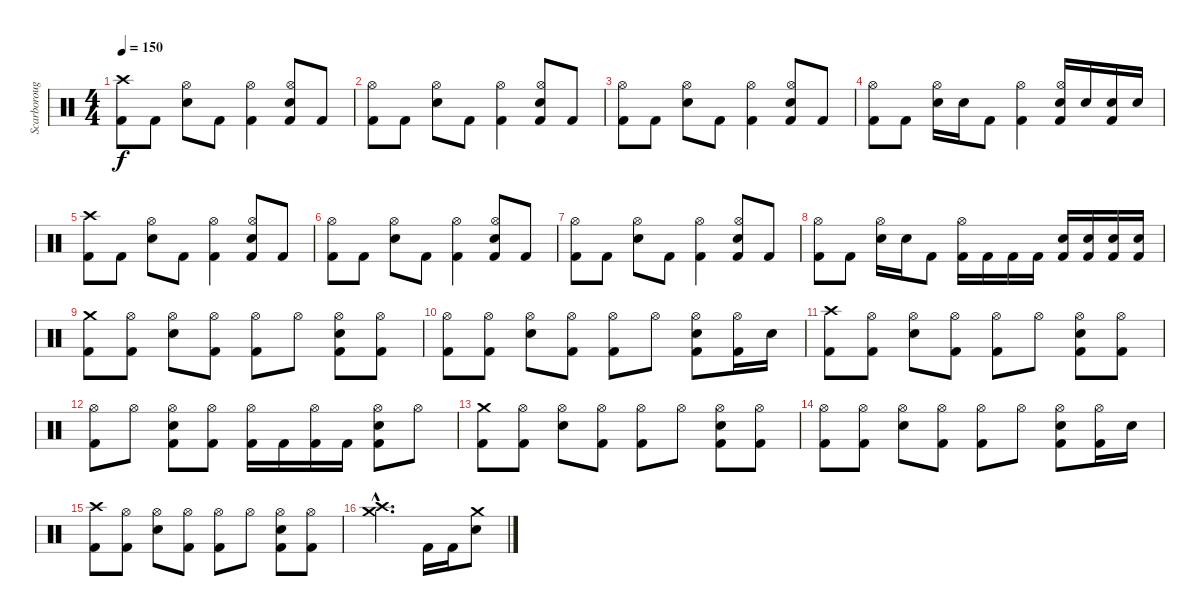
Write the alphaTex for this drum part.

\track ("Scarborough" "Scarboroug") {instrument percussion}
\staff {score}
\articulation defaults
\ts (4 4)
\tempo 150
\clef neutral
\ks c
("Crash high (hit)" "Kick (hit) 2").8{dy f} "Kick (hit) 2".8 ("Hi-Hat (open)" "Snare (hit) 2").8 "Kick (hit) 2".8 ("Hi-Hat (open)" "Kick (hit) 2").4 ("Hi-Hat (open)" "Kick (hit) 2" "Snare (hit) 2").8 "Kick (hit) 2".8 |
("Hi-Hat (open)" "Kick (hit) 2").8 "Kick (hit) 2".8 ("Hi-Hat (open)" "Snare (hit) 2").8 "Kick (hit) 2".8 ("Hi-Hat (open)" "Kick (hit) 2").4 ("Hi-Hat (open)" "Kick (hit) 2" "Snare (hit) 2").8 "Kick (hit) 2".8 |
("Hi-Hat (open)" "Kick (hit) 2").8 "Kick (hit) 2".8 ("Hi-Hat (open)" "Snare (hit) 2").8 "Kick (hit) 2".8 ("Hi-Hat (open)" "Kick (hit) 2").4 ("Hi-Hat (open)" "Kick (hit) 2" "Snare (hit) 2").8 "Kick (hit) 2".8 |
("Hi-Hat (open)" "Kick (hit) 2").8 "Kick (hit) 2".8 ("Hi-Hat (open)" "Snare (hit) 2").16 "Snare (hit) 2".16 "Kick (hit) 2".8 ("Hi-Hat (open)" "Kick (hit) 2").4 ("Hi-Hat (open)" "Kick (hit) 2" "Snare (hit) 2").16 "Snare (hit) 2".16 ("Kick (hit) 2" "Snare (hit) 2").16 "Snare (hit) 2".16 |
("Crash high (hit)" "Kick (hit) 2").8 "Kick (hit) 2".8 ("Hi-Hat (open)" "Snare (hit) 2").8 "Kick (hit) 2".8 ("Hi-Hat (open)" "Kick (hit) 2").4 ("Hi-Hat (open)" "Kick (hit) 2" "Snare (hit) 2").8 "Kick (hit) 2".8 |
("Hi-Hat (open)" "Kick (hit) 2").8 "Kick (hit) 2".8 ("Hi-Hat (open)" "Snare (hit) 2").8 "Kick (hit) 2".8 ("Hi-Hat (open)" "Kick (hit) 2").4 ("Hi-Hat (open)" "Kick (hit) 2" "Snare (hit) 2").8 "Kick (hit) 2".8 |
("Hi-Hat (open)" "Kick (hit) 2").8 "Kick (hit) 2".8 ("Hi-Hat (open)" "Snare (hit) 2").8 "Kick (hit) 2".8 ("Hi-Hat (open)" "Kick (hit) 2").4 ("Hi-Hat (open)" "Kick (hit) 2" "Snare (hit) 2").8 "Kick (hit) 2".8 |
("Hi-Hat (open)" "Kick (hit) 2").8 "Kick (hit) 2".8 ("Hi-Hat (open)" "Snare (hit) 2").16 "Snare (hit) 2".16 "Kick (hit) 2".8 ("Hi-Hat (open)" "Kick (hit) 2").16 "Kick (hit) 2".16 "Kick (hit) 2".16 "Kick (hit) 2".16 ("Kick (hit) 2" "Snare (hit) 2").16 ("Kick (hit) 2" "Snare (hit) 2").16 ("Kick (hit) 2" "Snare (hit) 2").16 ("Kick (hit) 2" "Snare (hit) 2").16 |
("Crash medium (hit)" "Kick (hit) 2").8 ("Hi-Hat (open)" "Kick (hit) 2").8 ("Hi-Hat (open)" "Snare (hit) 2").8 ("Hi-Hat (open)" "Kick (hit) 2").8 ("Hi-Hat (open)" "Kick (hit) 2").8 "Hi-Hat (open)".8 ("Hi-Hat (open)" "Kick (hit) 2" "Snare (hit) 2").8 ("Hi-Hat (open)" "Kick (hit) 2").8 |
("Hi-Hat (open)" "Kick (hit) 2").8 ("Hi-Hat (open)" "Kick (hit) 2").8 ("Hi-Hat (open)" "Snare (hit) 2").8 ("Hi-Hat (open)" "Kick (hit) 2").8 ("Hi-Hat (open)" "Kick (hit) 2").8 "Hi-Hat (open)".8 ("Hi-Hat (open)" "Kick (hit) 2" "Snare (hit) 2").8 ("Hi-Hat (open)" "Kick (hit) 2").16 "Snare (hit) 2".16 |
("Crash high (hit)" "Kick (hit) 2").8 ("Hi-Hat (open)" "Kick (hit) 2").8 ("Hi-Hat (open)" "Snare (hit) 2").8 ("Hi-Hat (open)" "Kick (hit) 2").8 ("Hi-Hat (open)" "Kick (hit) 2").8 "Hi-Hat (open)".8 ("Hi-Hat (open)" "Kick (hit) 2" "Snare (hit) 2").8 ("Hi-Hat (open)" "Kick (hit) 2").8 |
("Hi-Hat (open)" "Kick (hit) 2").8 "Hi-Hat (open)".8 ("Hi-Hat (open)" "Kick (hit) 2" "Snare (hit) 2").8 ("Hi-Hat (open)" "Kick (hit) 2").8 ("Hi-Hat (open)" "Kick (hit) 2").16 "Kick (hit) 2".16 ("Hi-Hat (open)" "Kick (hit) 2").16 "Kick (hit) 2".16 ("Hi-Hat (open)" "Kick (hit) 2" "Snare (hit) 2").8 "Hi-Hat (open)".8 |
("Crash medium (hit)" "Kick (hit) 2").8 ("Hi-Hat (open)" "Kick (hit) 2").8 ("Hi-Hat (open)" "Snare (hit) 2").8 ("Hi-Hat (open)" "Kick (hit) 2").8 ("Hi-Hat (open)" "Kick (hit) 2").8 "Hi-Hat (open)".8 ("Hi-Hat (open)" "Kick (hit) 2" "Snare (hit) 2").8 ("Hi-Hat (open)" "Kick (hit) 2").8 |
("Hi-Hat (open)" "Kick (hit) 2").8 ("Hi-Hat (open)" "Kick (hit) 2").8 ("Hi-Hat (open)" "Snare (hit) 2").8 ("Hi-Hat (open)" "Kick (hit) 2").8 ("Hi-Hat (open)" "Kick (hit) 2").8 "Hi-Hat (open)".8 ("Hi-Hat (open)" "Kick (hit) 2" "Snare (hit) 2").8 ("Hi-Hat (open)" "Kick (hit) 2").16 "Snare (hit) 2".16 |
("Crash high (hit)" "Kick (hit) 2").8 ("Hi-Hat (open)" "Kick (hit) 2").8 ("Hi-Hat (open)" "Snare (hit) 2").8 ("Hi-Hat (open)" "Kick (hit) 2").8 ("Hi-Hat (open)" "Kick (hit) 2").8 "Hi-Hat (open)".8 ("Hi-Hat (open)" "Kick (hit) 2" "Snare (hit) 2").8 ("Hi-Hat (open)" "Kick (hit) 2").8 |
("Crash medium (hit)"{hac} "Crash high (hit)"{hac}).2{d} "Kick (hit) 2".16 "Kick (hit) 2".16 ("Crash medium (hit)" "Snare (hit) 2").8
